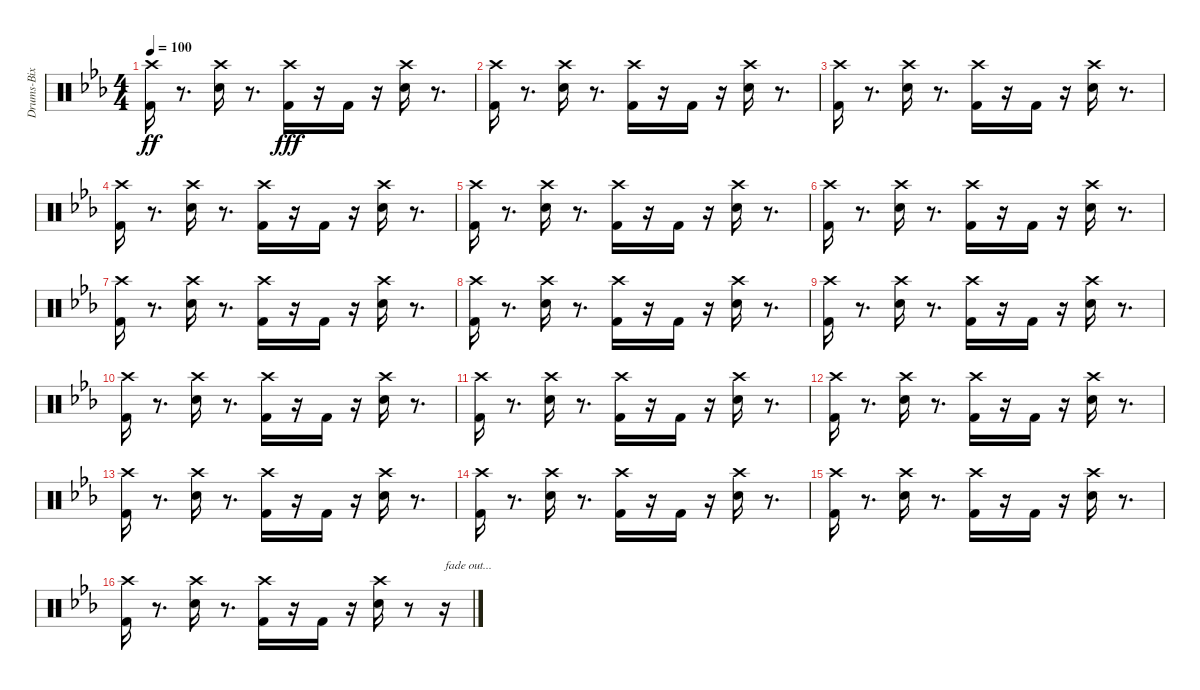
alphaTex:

\track ("Drums-Bix" "Drums-Bix") {instrument percussion}
\staff {score}
\articulation defaults
\ts (4 4)
\tempo 100
\clef neutral
\ks eb
("Crash high (hit)" "Kick (hit) 2").16{dy ff} r.8{d} ("Crash high (hit)" "Electric Snare (hit)").16 r.8{d} ("Crash high (hit)" "Kick (hit) 2").16{dy fff} r.16 "Kick (hit) 2".16 r.16 ("Crash high (hit)" "Electric Snare (hit)").16 r.8{d} |
("Crash high (hit)" "Kick (hit) 2").16 r.8{d} ("Crash high (hit)" "Electric Snare (hit)").16 r.8{d} ("Crash high (hit)" "Kick (hit) 2").16 r.16 "Kick (hit) 2".16 r.16 ("Crash high (hit)" "Electric Snare (hit)").16 r.8{d} |
("Crash high (hit)" "Kick (hit) 2").16 r.8{d} ("Crash high (hit)" "Electric Snare (hit)").16 r.8{d} ("Crash high (hit)" "Kick (hit) 2").16 r.16 "Kick (hit) 2".16 r.16 ("Crash high (hit)" "Electric Snare (hit)").16 r.8{d} |
("Crash high (hit)" "Kick (hit) 2").16 r.8{d} ("Crash high (hit)" "Electric Snare (hit)").16 r.8{d} ("Crash high (hit)" "Kick (hit) 2").16 r.16 "Kick (hit) 2".16 r.16 ("Crash high (hit)" "Electric Snare (hit)").16 r.8{d} |
("Crash high (hit)" "Kick (hit) 2").16 r.8{d} ("Crash high (hit)" "Electric Snare (hit)").16 r.8{d} ("Crash high (hit)" "Kick (hit) 2").16 r.16 "Kick (hit) 2".16 r.16 ("Crash high (hit)" "Electric Snare (hit)").16 r.8{d} |
("Crash high (hit)" "Kick (hit) 2").16 r.8{d} ("Crash high (hit)" "Electric Snare (hit)").16 r.8{d} ("Crash high (hit)" "Kick (hit) 2").16 r.16 "Kick (hit) 2".16 r.16 ("Crash high (hit)" "Electric Snare (hit)").16 r.8{d} |
("Crash high (hit)" "Kick (hit) 2").16 r.8{d} ("Crash high (hit)" "Electric Snare (hit)").16 r.8{d} ("Crash high (hit)" "Kick (hit) 2").16 r.16 "Kick (hit) 2".16 r.16 ("Crash high (hit)" "Electric Snare (hit)").16 r.8{d} |
("Crash high (hit)" "Kick (hit) 2").16 r.8{d} ("Crash high (hit)" "Electric Snare (hit)").16 r.8{d} ("Crash high (hit)" "Kick (hit) 2").16 r.16 "Kick (hit) 2".16 r.16 ("Crash high (hit)" "Electric Snare (hit)").16 r.8{d} |
("Crash high (hit)" "Kick (hit) 2").16 r.8{d} ("Crash high (hit)" "Electric Snare (hit)").16 r.8{d} ("Crash high (hit)" "Kick (hit) 2").16 r.16 "Kick (hit) 2".16 r.16 ("Crash high (hit)" "Electric Snare (hit)").16 r.8{d} |
("Crash high (hit)" "Kick (hit) 2").16 r.8{d} ("Crash high (hit)" "Electric Snare (hit)").16 r.8{d} ("Crash high (hit)" "Kick (hit) 2").16 r.16 "Kick (hit) 2".16 r.16 ("Crash high (hit)" "Electric Snare (hit)").16 r.8{d} |
("Crash high (hit)" "Kick (hit) 2").16 r.8{d} ("Crash high (hit)" "Electric Snare (hit)").16 r.8{d} ("Crash high (hit)" "Kick (hit) 2").16 r.16 "Kick (hit) 2".16 r.16 ("Crash high (hit)" "Electric Snare (hit)").16 r.8{d} |
("Crash high (hit)" "Kick (hit) 2").16 r.8{d} ("Crash high (hit)" "Electric Snare (hit)").16 r.8{d} ("Crash high (hit)" "Kick (hit) 2").16 r.16 "Kick (hit) 2".16 r.16 ("Crash high (hit)" "Electric Snare (hit)").16 r.8{d} |
("Crash high (hit)" "Kick (hit) 2").16 r.8{d} ("Crash high (hit)" "Electric Snare (hit)").16 r.8{d} ("Crash high (hit)" "Kick (hit) 2").16 r.16 "Kick (hit) 2".16 r.16 ("Crash high (hit)" "Electric Snare (hit)").16 r.8{d} |
("Crash high (hit)" "Kick (hit) 2").16 r.8{d} ("Crash high (hit)" "Electric Snare (hit)").16 r.8{d} ("Crash high (hit)" "Kick (hit) 2").16 r.16 "Kick (hit) 2".16 r.16 ("Crash high (hit)" "Electric Snare (hit)").16 r.8{d} |
("Crash high (hit)" "Kick (hit) 2").16 r.8{d} ("Crash high (hit)" "Electric Snare (hit)").16 r.8{d} ("Crash high (hit)" "Kick (hit) 2").16 r.16 "Kick (hit) 2".16 r.16 ("Crash high (hit)" "Electric Snare (hit)").16 r.8{d} |
("Crash high (hit)" "Kick (hit) 2").16 r.8{d} ("Crash high (hit)" "Electric Snare (hit)").16 r.8{d} ("Crash high (hit)" "Kick (hit) 2").16 r.16 "Kick (hit) 2".16 r.16 ("Crash high (hit)" "Electric Snare (hit)").16 r.8 r.16{txt "fade out..."}
